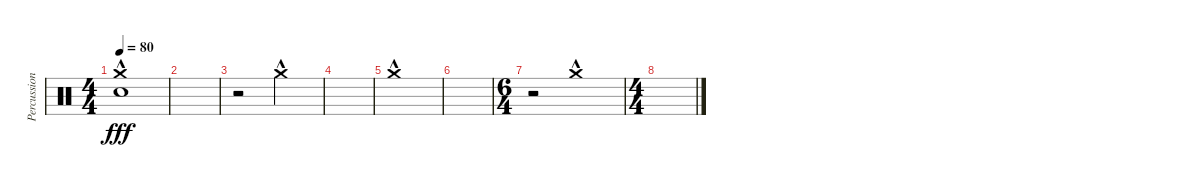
\track ("Percussion" "Percussion") {instrument percussion}
\staff {score}
\articulation defaults
\ts (4 4)
\tempo 80
\clef neutral
\ks c
("Crash medium (hit)"{hac} "Snare (hit) 2"{hac}).1{dy fff} |
|
r.2 "Crash medium (hit)"{hac}.2 |
|
"Crash medium (hit)"{hac}.1 |
|
\ts (6 4)
r.2 "Crash medium (hit)"{hac}.1 |
\ts (4 4)
